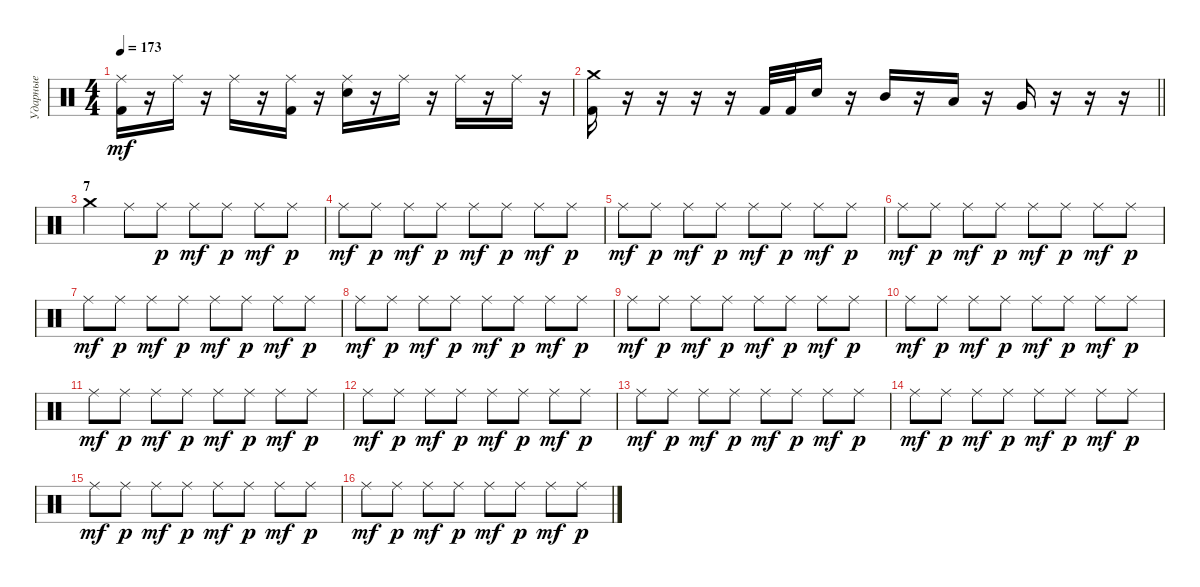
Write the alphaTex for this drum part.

\track ("Ударные" "Ударные") {instrument percussion}
\staff {score}
\articulation defaults
\ts (4 4)
\tempo 173
\clef neutral
\ks c
("Ride (middle)" "Kick (hit) 2").16{dy mf} r.16 "Ride (middle)".16 r.16 "Ride (middle)".16 r.16 ("Ride (middle)" "Kick (hit) 2").16 r.16 ("Ride (middle)" "Snare (hit) 2").16 r.16 "Ride (middle)".16 r.16 "Ride (middle)".16 r.16 "Ride (middle)".16 r.16 |
\barLineRight lightlight
("Crash medium (hit)" "Kick (hit) 2").16 r.16 r.16 r.16 r.16 "Kick (hit) 2".32 "Kick (hit) 2".32 "Snare (hit) 2".16 r.16 "Mid Tom (hit)".16 r.16 "Low Tom (hit)".16 r.16 "Very Low Tom (hit)".16 r.16 r.16 r.16 |
\section ("" "7")
"Crash medium (hit)".4 "Ride (middle)".8 "Ride (middle)".8{dy p} "Ride (middle)".8{dy mf} "Ride (middle)".8{dy p} "Ride (middle)".8{dy mf} "Ride (middle)".8{dy p} |
"Ride (middle)".8{dy mf} "Ride (middle)".8{dy p} "Ride (middle)".8{dy mf} "Ride (middle)".8{dy p} "Ride (middle)".8{dy mf} "Ride (middle)".8{dy p} "Ride (middle)".8{dy mf} "Ride (middle)".8{dy p} |
"Ride (middle)".8{dy mf} "Ride (middle)".8{dy p} "Ride (middle)".8{dy mf} "Ride (middle)".8{dy p} "Ride (middle)".8{dy mf} "Ride (middle)".8{dy p} "Ride (middle)".8{dy mf} "Ride (middle)".8{dy p} |
"Ride (middle)".8{dy mf} "Ride (middle)".8{dy p} "Ride (middle)".8{dy mf} "Ride (middle)".8{dy p} "Ride (middle)".8{dy mf} "Ride (middle)".8{dy p} "Ride (middle)".8{dy mf} "Ride (middle)".8{dy p} |
"Ride (middle)".8{dy mf} "Ride (middle)".8{dy p} "Ride (middle)".8{dy mf} "Ride (middle)".8{dy p} "Ride (middle)".8{dy mf} "Ride (middle)".8{dy p} "Ride (middle)".8{dy mf} "Ride (middle)".8{dy p} |
"Ride (middle)".8{dy mf} "Ride (middle)".8{dy p} "Ride (middle)".8{dy mf} "Ride (middle)".8{dy p} "Ride (middle)".8{dy mf} "Ride (middle)".8{dy p} "Ride (middle)".8{dy mf} "Ride (middle)".8{dy p} |
"Ride (middle)".8{dy mf} "Ride (middle)".8{dy p} "Ride (middle)".8{dy mf} "Ride (middle)".8{dy p} "Ride (middle)".8{dy mf} "Ride (middle)".8{dy p} "Ride (middle)".8{dy mf} "Ride (middle)".8{dy p} |
"Ride (middle)".8{dy mf} "Ride (middle)".8{dy p} "Ride (middle)".8{dy mf} "Ride (middle)".8{dy p} "Ride (middle)".8{dy mf} "Ride (middle)".8{dy p} "Ride (middle)".8{dy mf} "Ride (middle)".8{dy p} |
"Ride (middle)".8{dy mf} "Ride (middle)".8{dy p} "Ride (middle)".8{dy mf} "Ride (middle)".8{dy p} "Ride (middle)".8{dy mf} "Ride (middle)".8{dy p} "Ride (middle)".8{dy mf} "Ride (middle)".8{dy p} |
"Ride (middle)".8{dy mf} "Ride (middle)".8{dy p} "Ride (middle)".8{dy mf} "Ride (middle)".8{dy p} "Ride (middle)".8{dy mf} "Ride (middle)".8{dy p} "Ride (middle)".8{dy mf} "Ride (middle)".8{dy p} |
"Ride (middle)".8{dy mf} "Ride (middle)".8{dy p} "Ride (middle)".8{dy mf} "Ride (middle)".8{dy p} "Ride (middle)".8{dy mf} "Ride (middle)".8{dy p} "Ride (middle)".8{dy mf} "Ride (middle)".8{dy p} |
"Ride (middle)".8{dy mf} "Ride (middle)".8{dy p} "Ride (middle)".8{dy mf} "Ride (middle)".8{dy p} "Ride (middle)".8{dy mf} "Ride (middle)".8{dy p} "Ride (middle)".8{dy mf} "Ride (middle)".8{dy p} |
"Ride (middle)".8{dy mf} "Ride (middle)".8{dy p} "Ride (middle)".8{dy mf} "Ride (middle)".8{dy p} "Ride (middle)".8{dy mf} "Ride (middle)".8{dy p} "Ride (middle)".8{dy mf} "Ride (middle)".8{dy p} |
"Ride (middle)".8{dy mf} "Ride (middle)".8{dy p} "Ride (middle)".8{dy mf} "Ride (middle)".8{dy p} "Ride (middle)".8{dy mf} "Ride (middle)".8{dy p} "Ride (middle)".8{dy mf} "Ride (middle)".8{dy p}
